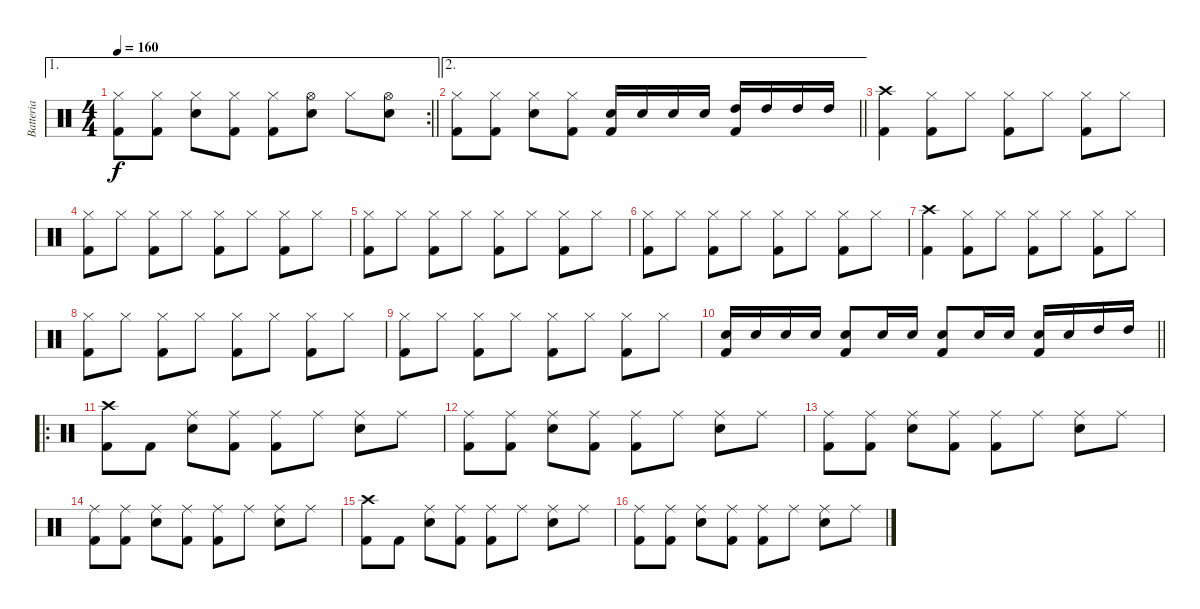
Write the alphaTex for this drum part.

\track ("Batteria" "Batteria") {instrument percussion}
\staff {score}
\articulation defaults
\ae 1
\rc 2
\ts (4 4)
\tempo 160
\clef neutral
\barLineRight lightlight
\ks c
("Hi-Hat (closed)" "Kick (hit) 2").8{dy f} ("Hi-Hat (closed)" "Kick (hit) 2").8 ("Hi-Hat (closed)" "Electric Snare (hit)").8 ("Hi-Hat (closed)" "Kick (hit) 2").8 ("Hi-Hat (closed)" "Kick (hit) 2").8 ("Hi-Hat (open)" "Electric Snare (hit)").8 "Hi-Hat (closed)".8 ("Hi-Hat (open)" "Electric Snare (hit)").8 |
\ae 2
\barLineRight lightlight
("Hi-Hat (closed)" "Kick (hit) 2").8 ("Hi-Hat (closed)" "Kick (hit) 2").8 ("Hi-Hat (closed)" "Electric Snare (hit)").8 ("Hi-Hat (closed)" "Kick (hit) 2").8 ("Electric Snare (hit)" "Kick (hit) 2").16 "Electric Snare (hit)".16 "Electric Snare (hit)".16 "Electric Snare (hit)".16 ("High Tom (hit)" "Kick (hit) 2").16 "High Tom (hit)".16 "High Tom (hit)".16 "High Tom (hit)".16 |
("Crash high (hit)" "Kick (hit) 2").4 ("Hi-Hat (closed)" "Kick (hit) 2").8 "Hi-Hat (closed)".8 ("Hi-Hat (closed)" "Kick (hit) 2").8 "Hi-Hat (closed)".8 ("Hi-Hat (closed)" "Kick (hit) 2").8 "Hi-Hat (closed)".8 |
("Hi-Hat (closed)" "Kick (hit) 2").8 "Hi-Hat (closed)".8 ("Hi-Hat (closed)" "Kick (hit) 2").8 "Hi-Hat (closed)".8 ("Hi-Hat (closed)" "Kick (hit) 2").8 "Hi-Hat (closed)".8 ("Hi-Hat (closed)" "Kick (hit) 2").8 "Hi-Hat (closed)".8 |
("Hi-Hat (closed)" "Kick (hit) 2").8 "Hi-Hat (closed)".8 ("Hi-Hat (closed)" "Kick (hit) 2").8 "Hi-Hat (closed)".8 ("Hi-Hat (closed)" "Kick (hit) 2").8 "Hi-Hat (closed)".8 ("Hi-Hat (closed)" "Kick (hit) 2").8 "Hi-Hat (closed)".8 |
("Hi-Hat (closed)" "Kick (hit) 2").8 "Hi-Hat (closed)".8 ("Hi-Hat (closed)" "Kick (hit) 2").8 "Hi-Hat (closed)".8 ("Hi-Hat (closed)" "Kick (hit) 2").8 "Hi-Hat (closed)".8 ("Hi-Hat (closed)" "Kick (hit) 2").8 "Hi-Hat (closed)".8 |
("Crash high (hit)" "Kick (hit) 2").4 ("Hi-Hat (closed)" "Kick (hit) 2").8 "Hi-Hat (closed)".8 ("Hi-Hat (closed)" "Kick (hit) 2").8 "Hi-Hat (closed)".8 ("Hi-Hat (closed)" "Kick (hit) 2").8 "Hi-Hat (closed)".8 |
("Hi-Hat (closed)" "Kick (hit) 2").8 "Hi-Hat (closed)".8 ("Hi-Hat (closed)" "Kick (hit) 2").8 "Hi-Hat (closed)".8 ("Hi-Hat (closed)" "Kick (hit) 2").8 "Hi-Hat (closed)".8 ("Hi-Hat (closed)" "Kick (hit) 2").8 "Hi-Hat (closed)".8 |
("Hi-Hat (closed)" "Kick (hit) 2").8 "Hi-Hat (closed)".8 ("Hi-Hat (closed)" "Kick (hit) 2").8 "Hi-Hat (closed)".8 ("Hi-Hat (closed)" "Kick (hit) 2").8 "Hi-Hat (closed)".8 ("Hi-Hat (closed)" "Kick (hit) 2").8 "Hi-Hat (closed)".8 |
\barLineRight lightlight
("Electric Snare (hit)" "Kick (hit) 2").16 "Electric Snare (hit)".16 "Electric Snare (hit)".16 "Electric Snare (hit)".16 ("Electric Snare (hit)" "Kick (hit) 2").8 "Electric Snare (hit)".16 "Electric Snare (hit)".16 ("Electric Snare (hit)" "Kick (hit) 2").8 "Electric Snare (hit)".16 "Electric Snare (hit)".16 ("Electric Snare (hit)" "Kick (hit) 2").16 "Electric Snare (hit)".16 "High Tom (hit)".16 "High Tom (hit)".16 |
\ro
("Crash high (hit)" "Kick (hit) 2").8 "Kick (hit) 2".8 ("Ride (middle)" "Electric Snare (hit)").8 ("Ride (middle)" "Kick (hit) 2").8 ("Ride (middle)" "Kick (hit) 2").8 "Ride (middle)".8 ("Ride (middle)" "Electric Snare (hit)").8 "Ride (middle)".8 |
("Ride (middle)" "Kick (hit) 2").8 ("Ride (middle)" "Kick (hit) 2").8 ("Ride (middle)" "Electric Snare (hit)").8 ("Ride (middle)" "Kick (hit) 2").8 ("Ride (middle)" "Kick (hit) 2").8 "Ride (middle)".8 ("Ride (middle)" "Electric Snare (hit)").8 "Ride (middle)".8 |
("Ride (middle)" "Kick (hit) 2").8 ("Ride (middle)" "Kick (hit) 2").8 ("Ride (middle)" "Electric Snare (hit)").8 ("Ride (middle)" "Kick (hit) 2").8 ("Ride (middle)" "Kick (hit) 2").8 "Ride (middle)".8 ("Ride (middle)" "Electric Snare (hit)").8 "Ride (middle)".8 |
("Ride (middle)" "Kick (hit) 2").8 ("Ride (middle)" "Kick (hit) 2").8 ("Ride (middle)" "Electric Snare (hit)").8 ("Ride (middle)" "Kick (hit) 2").8 ("Ride (middle)" "Kick (hit) 2").8 "Ride (middle)".8 ("Ride (middle)" "Electric Snare (hit)").8 "Ride (middle)".8 |
("Crash high (hit)" "Kick (hit) 2").8 "Kick (hit) 2".8 ("Ride (middle)" "Electric Snare (hit)").8 ("Ride (middle)" "Kick (hit) 2").8 ("Ride (middle)" "Kick (hit) 2").8 "Ride (middle)".8 ("Ride (middle)" "Electric Snare (hit)").8 "Ride (middle)".8 |
("Ride (middle)" "Kick (hit) 2").8 ("Ride (middle)" "Kick (hit) 2").8 ("Ride (middle)" "Electric Snare (hit)").8 ("Ride (middle)" "Kick (hit) 2").8 ("Ride (middle)" "Kick (hit) 2").8 "Ride (middle)".8 ("Ride (middle)" "Electric Snare (hit)").8 "Ride (middle)".8
